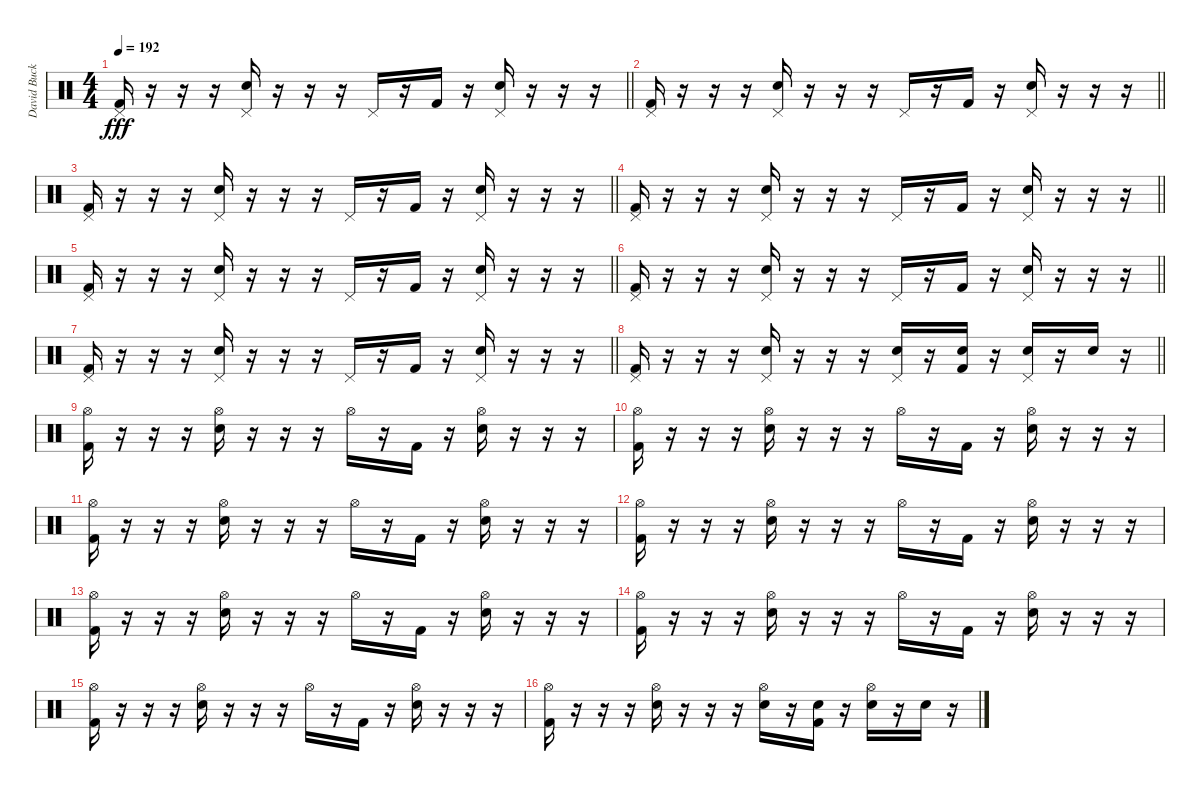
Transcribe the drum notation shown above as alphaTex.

\track ("David Buckner" "David Buck") {instrument percussion}
\staff {score}
\articulation defaults
\ts (4 4)
\tempo 192
\clef neutral
\barLineRight lightlight
\ks c
("Pedal Hi-Hat (hit)" "Kick (hit) 2").16{dy fff} r.16 r.16 r.16 ("Pedal Hi-Hat (hit)" "Electric Snare (hit)").16 r.16 r.16 r.16 "Pedal Hi-Hat (hit)".16 r.16 "Kick (hit) 2".16 r.16 ("Pedal Hi-Hat (hit)" "Electric Snare (hit)").16 r.16 r.16 r.16 |
\barLineRight lightlight
("Pedal Hi-Hat (hit)" "Kick (hit) 2").16 r.16 r.16 r.16 ("Pedal Hi-Hat (hit)" "Electric Snare (hit)").16 r.16 r.16 r.16 "Pedal Hi-Hat (hit)".16 r.16 "Kick (hit) 2".16 r.16 ("Pedal Hi-Hat (hit)" "Electric Snare (hit)").16 r.16 r.16 r.16 |
\barLineRight lightlight
("Pedal Hi-Hat (hit)" "Kick (hit) 2").16 r.16 r.16 r.16 ("Pedal Hi-Hat (hit)" "Electric Snare (hit)").16 r.16 r.16 r.16 "Pedal Hi-Hat (hit)".16 r.16 "Kick (hit) 2".16 r.16 ("Pedal Hi-Hat (hit)" "Electric Snare (hit)").16 r.16 r.16 r.16 |
\barLineRight lightlight
("Pedal Hi-Hat (hit)" "Kick (hit) 2").16 r.16 r.16 r.16 ("Pedal Hi-Hat (hit)" "Electric Snare (hit)").16 r.16 r.16 r.16 "Pedal Hi-Hat (hit)".16 r.16 "Kick (hit) 2".16 r.16 ("Pedal Hi-Hat (hit)" "Electric Snare (hit)").16 r.16 r.16 r.16 |
\barLineRight lightlight
("Pedal Hi-Hat (hit)" "Kick (hit) 2").16 r.16 r.16 r.16 ("Pedal Hi-Hat (hit)" "Electric Snare (hit)").16 r.16 r.16 r.16 "Pedal Hi-Hat (hit)".16 r.16 "Kick (hit) 2".16 r.16 ("Pedal Hi-Hat (hit)" "Electric Snare (hit)").16 r.16 r.16 r.16 |
\barLineRight lightlight
("Pedal Hi-Hat (hit)" "Kick (hit) 2").16 r.16 r.16 r.16 ("Pedal Hi-Hat (hit)" "Electric Snare (hit)").16 r.16 r.16 r.16 "Pedal Hi-Hat (hit)".16 r.16 "Kick (hit) 2".16 r.16 ("Pedal Hi-Hat (hit)" "Electric Snare (hit)").16 r.16 r.16 r.16 |
\barLineRight lightlight
("Pedal Hi-Hat (hit)" "Kick (hit) 2").16 r.16 r.16 r.16 ("Pedal Hi-Hat (hit)" "Electric Snare (hit)").16 r.16 r.16 r.16 "Pedal Hi-Hat (hit)".16 r.16 "Kick (hit) 2".16 r.16 ("Pedal Hi-Hat (hit)" "Electric Snare (hit)").16 r.16 r.16 r.16 |
\barLineRight lightlight
("Pedal Hi-Hat (hit)" "Kick (hit) 2").16 r.16 r.16 r.16 ("Pedal Hi-Hat (hit)" "Electric Snare (hit)").16 r.16 r.16 r.16 ("Pedal Hi-Hat (hit)" "Electric Snare (hit)").16 r.16 ("Electric Snare (hit)" "Kick (hit) 2").16 r.16 ("Pedal Hi-Hat (hit)" "Electric Snare (hit)").16 r.16 "Electric Snare (hit)".16 r.16 |
("Hi-Hat (open)" "Kick (hit) 2").16 r.16 r.16 r.16 ("Hi-Hat (open)" "Electric Snare (hit)").16 r.16 r.16 r.16 "Hi-Hat (open)".16 r.16 "Kick (hit) 2".16 r.16 ("Hi-Hat (open)" "Electric Snare (hit)").16 r.16 r.16 r.16 |
("Hi-Hat (open)" "Kick (hit) 2").16 r.16 r.16 r.16 ("Hi-Hat (open)" "Electric Snare (hit)").16 r.16 r.16 r.16 "Hi-Hat (open)".16 r.16 "Kick (hit) 2".16 r.16 ("Hi-Hat (open)" "Electric Snare (hit)").16 r.16 r.16 r.16 |
("Hi-Hat (open)" "Kick (hit) 2").16 r.16 r.16 r.16 ("Hi-Hat (open)" "Electric Snare (hit)").16 r.16 r.16 r.16 "Hi-Hat (open)".16 r.16 "Kick (hit) 2".16 r.16 ("Hi-Hat (open)" "Electric Snare (hit)").16 r.16 r.16 r.16 |
("Hi-Hat (open)" "Kick (hit) 2").16 r.16 r.16 r.16 ("Hi-Hat (open)" "Electric Snare (hit)").16 r.16 r.16 r.16 "Hi-Hat (open)".16 r.16 "Kick (hit) 2".16 r.16 ("Hi-Hat (open)" "Electric Snare (hit)").16 r.16 r.16 r.16 |
("Hi-Hat (open)" "Kick (hit) 2").16 r.16 r.16 r.16 ("Hi-Hat (open)" "Electric Snare (hit)").16 r.16 r.16 r.16 "Hi-Hat (open)".16 r.16 "Kick (hit) 2".16 r.16 ("Hi-Hat (open)" "Electric Snare (hit)").16 r.16 r.16 r.16 |
("Hi-Hat (open)" "Kick (hit) 2").16 r.16 r.16 r.16 ("Hi-Hat (open)" "Electric Snare (hit)").16 r.16 r.16 r.16 "Hi-Hat (open)".16 r.16 "Kick (hit) 2".16 r.16 ("Hi-Hat (open)" "Electric Snare (hit)").16 r.16 r.16 r.16 |
("Hi-Hat (open)" "Kick (hit) 2").16 r.16 r.16 r.16 ("Hi-Hat (open)" "Electric Snare (hit)").16 r.16 r.16 r.16 "Hi-Hat (open)".16 r.16 "Kick (hit) 2".16 r.16 ("Hi-Hat (open)" "Electric Snare (hit)").16 r.16 r.16 r.16 |
("Hi-Hat (open)" "Kick (hit) 2").16 r.16 r.16 r.16 ("Hi-Hat (open)" "Electric Snare (hit)").16 r.16 r.16 r.16 ("Hi-Hat (open)" "Electric Snare (hit)").16 r.16 ("Electric Snare (hit)" "Kick (hit) 2").16 r.16 ("Hi-Hat (open)" "Electric Snare (hit)").16 r.16 "Electric Snare (hit)".16 r.16
